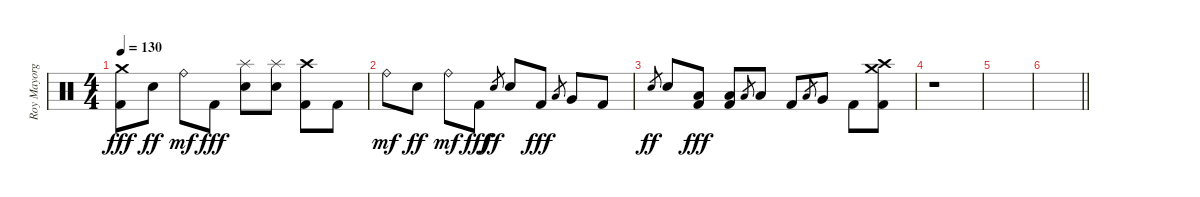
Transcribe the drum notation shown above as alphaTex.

\track ("Roy Mayorga" "Roy Mayorg") {instrument percussion}
\staff {score}
\articulation defaults
\ts (4 4)
\tempo 130
\clef neutral
\ks c
("Crash medium (hit)" "Kick (hit) 2").8{dy fff} "Electric Snare (hit)".8{dy ff} "Ride (bell)".8{dy mf} "Kick (hit) 2".8{dy fff} ("Splash (hit)" "Electric Snare (hit)").8 ("Splash (hit)" "Electric Snare (hit)").8 ("Crash high (hit)" "Kick (hit) 2").8 "Kick (hit) 2".8 |
"Ride (bell)".8{dy mf} "Electric Snare (hit)".8{dy ff} "Ride (bell)".8{dy mf} "Kick (hit) 2".8{dy fff} "Electric Snare (hit)".8{gr dy ff} "Electric Snare (hit)".8 "Kick (hit) 2".8{dy fff} "Low Floor Tom (hit)".8{gr} "Very Low Tom (hit)".8 "Kick (hit) 2".8 |
"Electric Snare (hit)".8{gr dy ff} "Electric Snare (hit)".8 ("Low Floor Tom (hit)" "Kick (hit) 2").8{dy fff} ("Low Floor Tom (hit)" "Kick (hit) 2").8 "Low Floor Tom (hit)".8{gr} "Low Tom (hit)".8 "Kick (hit) 2".8 "Low Floor Tom (hit)".8{gr} "Very Low Tom (hit)".8 "Kick (hit) 2".8 ("Crash high (hit)" "Crash medium (hit)" "Kick (hit) 2").8 |
r.1 |
|
\barLineRight lightlight
